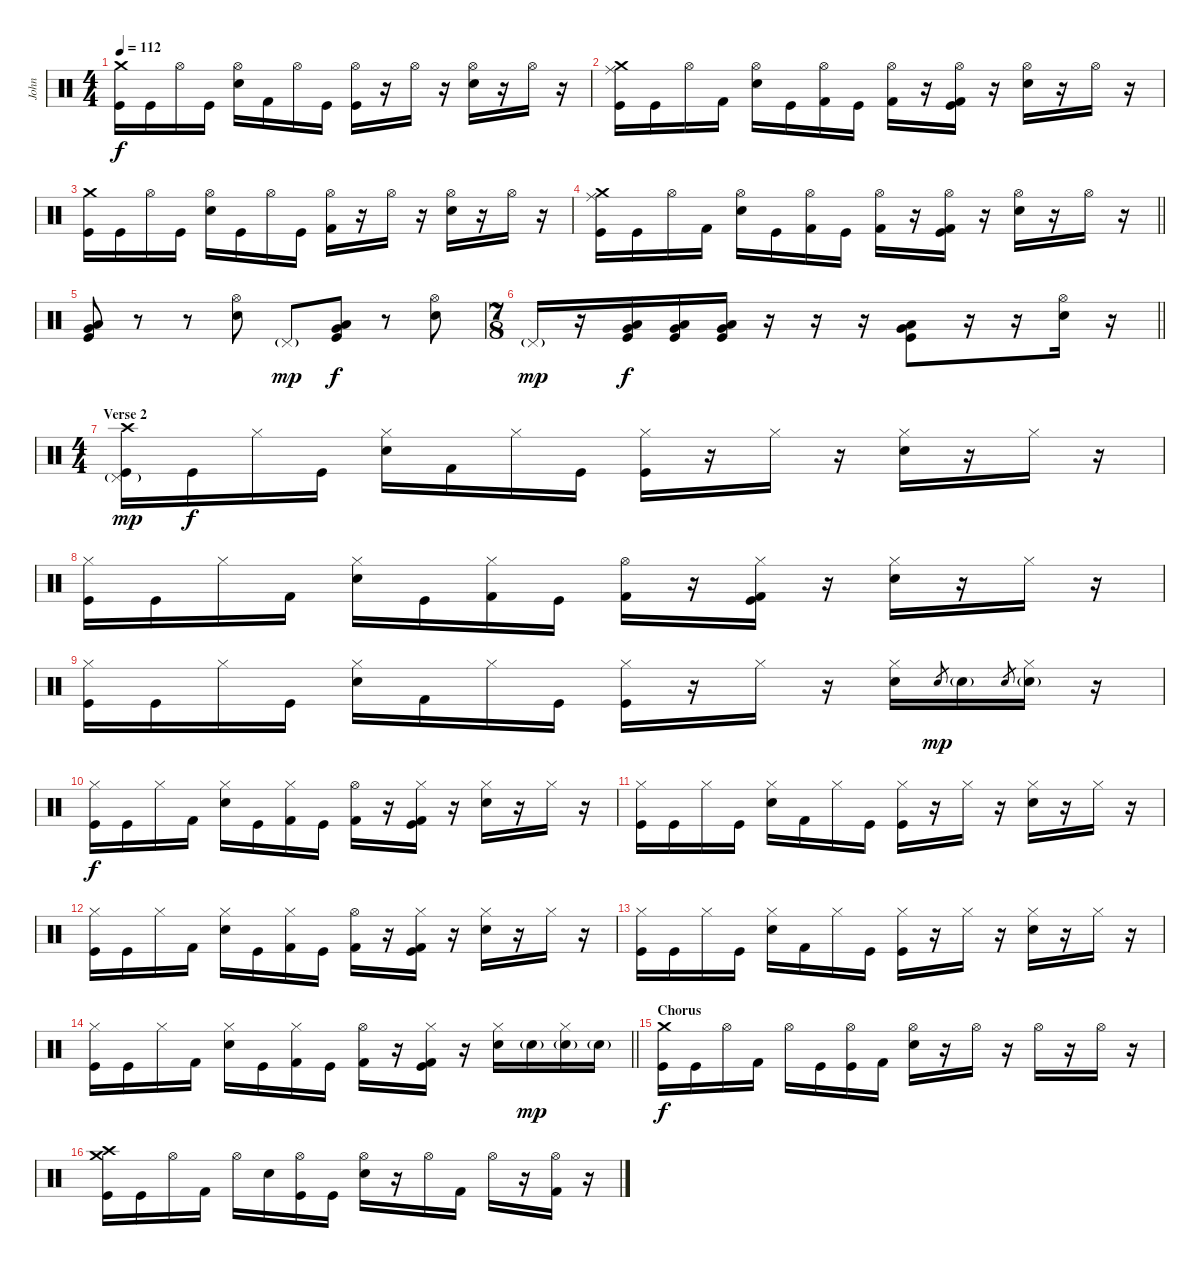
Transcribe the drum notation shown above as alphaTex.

\track ("John" "John") {instrument percussion}
\staff {score}
\articulation defaults
\ts (4 4)
\tempo 112
\clef neutral
\ks c
("Crash medium (hit)" "Kick (hit)").16{dy f} "Kick (hit)".16 "Hi-Hat (open)".16 "Kick (hit)".16 ("Hi-Hat (open)" "Electric Snare (hit)").16 "Kick (hit) 2".16 "Hi-Hat (open)".16 "Kick (hit)".16 ("Hi-Hat (open)" "Kick (hit)").16 r.16 "Hi-Hat (open)".16 r.16 ("Hi-Hat (open)" "Electric Snare (hit)").16 r.16 "Hi-Hat (open)".16 r.16 |
("Crash medium (hit)" "Ride (middle)" "Kick (hit)").16 "Kick (hit)".16 "Hi-Hat (open)".16 "Kick (hit) 2".16 ("Hi-Hat (open)" "Electric Snare (hit)").16 "Kick (hit)".16 ("Hi-Hat (open)" "Kick (hit) 2").16 "Kick (hit)".16 ("Hi-Hat (open)" "Kick (hit) 2").16 r.16 ("Hi-Hat (open)" "Kick (hit)" "Kick (hit) 2").16 r.16 ("Hi-Hat (open)" "Electric Snare (hit)").16 r.16 "Hi-Hat (open)".16 r.16 |
("Crash medium (hit)" "Kick (hit)").16 "Kick (hit)".16 "Hi-Hat (open)".16 "Kick (hit)".16 ("Hi-Hat (open)" "Electric Snare (hit)").16 "Kick (hit)".16 "Hi-Hat (open)".16 "Kick (hit)".16 ("Hi-Hat (open)" "Kick (hit) 2").16 r.16 "Hi-Hat (open)".16 r.16 ("Hi-Hat (open)" "Electric Snare (hit)").16 r.16 "Hi-Hat (open)".16 r.16 |
\barLineRight lightlight
("Crash medium (hit)" "Ride (middle)" "Kick (hit)").16 "Kick (hit)".16 "Hi-Hat (open)".16 "Kick (hit) 2".16 ("Hi-Hat (open)" "Electric Snare (hit)").16 "Kick (hit)".16 ("Hi-Hat (open)" "Kick (hit) 2").16 "Kick (hit)".16 ("Hi-Hat (open)" "Kick (hit) 2").16 r.16 ("Hi-Hat (open)" "Kick (hit)" "Kick (hit) 2").16 r.16 ("Hi-Hat (open)" "Electric Snare (hit)").16 r.16 "Hi-Hat (open)".16 r.16 |
\section ("" "")
("Very Low Tom (hit)" "Low Tom (hit)" "Kick (hit)").8 r.8 r.8 ("Hi-Hat (open)" "Electric Snare (hit)").8 "Pedal Hi-Hat (hit)"{g}.8{dy mp} ("Very Low Tom (hit)" "Low Tom (hit)" "Kick (hit)").8{dy f} r.8 ("Hi-Hat (open)" "Electric Snare (hit)").8 |
\ts (7 8)
\barLineRight lightlight "Pedal Hi-Hat (hit)"{g}.16{dy mp}
r.16 ("Very Low Tom (hit)" "Low Tom (hit)" "Kick (hit)").16{dy f} ("Very Low Tom (hit)" "Low Tom (hit)" "Kick (hit)").16 ("Very Low Tom (hit)" "Low Tom (hit)" "Kick (hit)").16 r.16 r.16 r.16 ("Very Low Tom (hit)" "Low Tom (hit)" "Kick (hit)").8 r.16 r.16 ("Hi-Hat (open)" "Electric Snare (hit)").16 r.16 |
\ts (4 4)
\section ("" "Verse 2")
("Crash high (hit)" "Pedal Hi-Hat (hit)"{g} "Kick (hit)").16{dy mp} "Kick (hit)".16{dy f} "Hi-Hat (closed)".16 "Kick (hit)".16 ("Hi-Hat (closed)" "Electric Snare (hit)").16 "Kick (hit) 2".16 "Hi-Hat (closed)".16 "Kick (hit)".16 ("Hi-Hat (closed)" "Kick (hit)").16 r.16 "Hi-Hat (closed)".16 r.16 ("Hi-Hat (closed)" "Electric Snare (hit)").16 r.16 "Hi-Hat (closed)".16 r.16 |
("Hi-Hat (closed)" "Kick (hit)").16 "Kick (hit)".16 "Hi-Hat (closed)".16 "Kick (hit) 2".16 ("Hi-Hat (closed)" "Electric Snare (hit)").16 "Kick (hit)".16 ("Hi-Hat (closed)" "Kick (hit) 2").16 "Kick (hit)".16 ("Hi-Hat (open)" "Kick (hit) 2").16 r.16 ("Hi-Hat (closed)" "Kick (hit)" "Kick (hit) 2").16 r.16 ("Hi-Hat (closed)" "Electric Snare (hit)").16 r.16 "Hi-Hat (closed)".16 r.16 |
("Hi-Hat (closed)" "Kick (hit)").16 "Kick (hit)".16 "Hi-Hat (closed)".16 "Kick (hit)".16 ("Hi-Hat (closed)" "Electric Snare (hit)").16 "Kick (hit) 2".16 "Hi-Hat (closed)".16 "Kick (hit)".16 ("Hi-Hat (closed)" "Kick (hit)").16 r.16 "Hi-Hat (closed)".16 r.16 ("Hi-Hat (closed)" "Electric Snare (hit)").16 "Electric Snare (hit)".8{gr dy mp} "Electric Snare (hit)"{g}.16 "Electric Snare (hit)".8{gr} ("Hi-Hat (closed)" "Electric Snare (hit)"{g}).16 r.16 |
("Hi-Hat (closed)" "Kick (hit)").16{dy f} "Kick (hit)".16 "Hi-Hat (closed)".16 "Kick (hit) 2".16 ("Hi-Hat (closed)" "Electric Snare (hit)").16 "Kick (hit)".16 ("Hi-Hat (closed)" "Kick (hit) 2").16 "Kick (hit)".16 ("Hi-Hat (open)" "Kick (hit) 2").16 r.16 ("Hi-Hat (closed)" "Kick (hit)" "Kick (hit) 2").16 r.16 ("Hi-Hat (closed)" "Electric Snare (hit)").16 r.16 "Hi-Hat (closed)".16 r.16 |
("Hi-Hat (closed)" "Kick (hit)").16 "Kick (hit)".16 "Hi-Hat (closed)".16 "Kick (hit)".16 ("Hi-Hat (closed)" "Electric Snare (hit)").16 "Kick (hit) 2".16 "Hi-Hat (closed)".16 "Kick (hit)".16 ("Hi-Hat (closed)" "Kick (hit)").16 r.16 "Hi-Hat (closed)".16 r.16 ("Hi-Hat (closed)" "Electric Snare (hit)").16 r.16 "Hi-Hat (closed)".16 r.16 |
("Hi-Hat (closed)" "Kick (hit)").16 "Kick (hit)".16 "Hi-Hat (closed)".16 "Kick (hit) 2".16 ("Hi-Hat (closed)" "Electric Snare (hit)").16 "Kick (hit)".16 ("Hi-Hat (closed)" "Kick (hit) 2").16 "Kick (hit)".16 ("Hi-Hat (open)" "Kick (hit) 2").16 r.16 ("Hi-Hat (closed)" "Kick (hit)" "Kick (hit) 2").16 r.16 ("Hi-Hat (closed)" "Electric Snare (hit)").16 r.16 "Hi-Hat (closed)".16 r.16 |
("Hi-Hat (closed)" "Kick (hit)").16 "Kick (hit)".16 "Hi-Hat (closed)".16 "Kick (hit)".16 ("Hi-Hat (closed)" "Electric Snare (hit)").16 "Kick (hit) 2".16 "Hi-Hat (closed)".16 "Kick (hit)".16 ("Hi-Hat (closed)" "Kick (hit)").16 r.16 "Hi-Hat (closed)".16 r.16 ("Hi-Hat (closed)" "Electric Snare (hit)").16 r.16 "Hi-Hat (closed)".16 r.16 |
\barLineRight lightlight
("Hi-Hat (closed)" "Kick (hit)").16 "Kick (hit)".16 "Hi-Hat (closed)".16 "Kick (hit) 2".16 ("Hi-Hat (closed)" "Electric Snare (hit)").16 "Kick (hit)".16 ("Hi-Hat (closed)" "Kick (hit) 2").16 "Kick (hit)".16 ("Hi-Hat (open)" "Kick (hit) 2").16 r.16 ("Hi-Hat (closed)" "Kick (hit)" "Kick (hit) 2").16 r.16 ("Hi-Hat (closed)" "Electric Snare (hit)").16 "Electric Snare (hit)"{g}.16{dy mp} ("Hi-Hat (closed)" "Electric Snare (hit)"{g}).16 "Electric Snare (hit)"{g}.16 |
\section ("" "Chorus")
("Crash medium (hit)" "Kick (hit)").16{dy f} "Kick (hit)".16 "Hi-Hat (open)".16 "Kick (hit) 2".16 "Hi-Hat (open)".16 "Kick (hit)".16 ("Hi-Hat (open)" "Kick (hit)").16 "Kick (hit) 2".16 ("Hi-Hat (open)" "Electric Snare (hit)").16 r.16 "Hi-Hat (open)".16 r.16 "Hi-Hat (open)".16 r.16 "Hi-Hat (open)".16 r.16 |
("Crash high (hit)" "Crash medium (hit)" "Kick (hit)").16 "Kick (hit)".16 "Hi-Hat (open)".16 "Kick (hit) 2".16 "Hi-Hat (open)".16 "Electric Snare (hit)".16 ("Hi-Hat (open)" "Kick (hit)").16 "Kick (hit)".16 ("Hi-Hat (open)" "Electric Snare (hit)").16 r.16 "Hi-Hat (open)".16 "Kick (hit) 2".16 "Hi-Hat (open)".16 r.16 ("Hi-Hat (open)" "Kick (hit) 2").16 r.16
